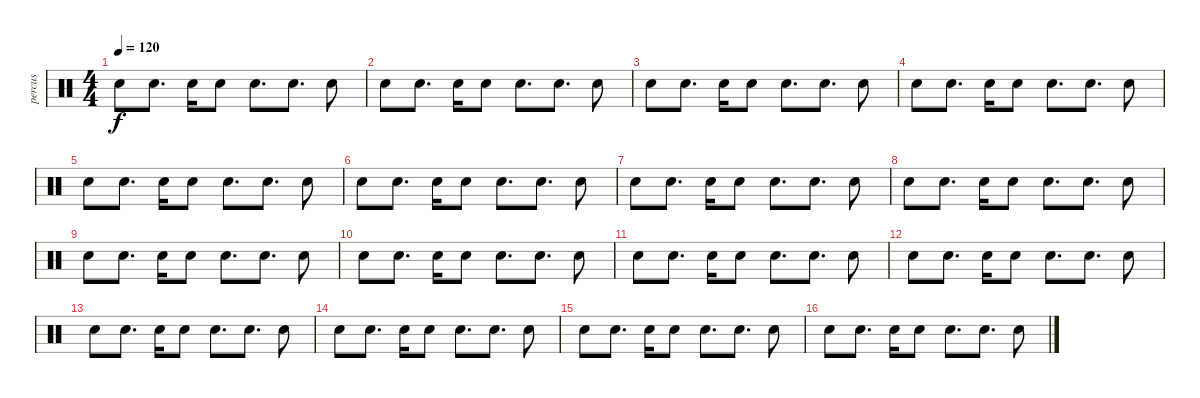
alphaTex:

\track ("percus" "percus") {instrument percussion}
\staff {score}
\articulation defaults
\ts (4 4)
\tempo 120
\clef neutral
\ks c "Snare (hit)".8{dy f} "Snare (hit)".8{d} "Snare (hit)".16 "Snare (hit)".8 "Snare (hit)".8{d} "Snare (hit)".8{d} "Snare (hit)".8
|
"Snare (hit)".8 "Snare (hit)".8{d} "Snare (hit)".16 "Snare (hit)".8 "Snare (hit)".8{d} "Snare (hit)".8{d} "Snare (hit)".8 |
"Snare (hit)".8 "Snare (hit)".8{d} "Snare (hit)".16 "Snare (hit)".8 "Snare (hit)".8{d} "Snare (hit)".8{d} "Snare (hit)".8 |
"Snare (hit)".8 "Snare (hit)".8{d} "Snare (hit)".16 "Snare (hit)".8 "Snare (hit)".8{d} "Snare (hit)".8{d} "Snare (hit)".8 |
"Snare (hit)".8 "Snare (hit)".8{d} "Snare (hit)".16 "Snare (hit)".8 "Snare (hit)".8{d} "Snare (hit)".8{d} "Snare (hit)".8 |
"Snare (hit)".8 "Snare (hit)".8{d} "Snare (hit)".16 "Snare (hit)".8 "Snare (hit)".8{d} "Snare (hit)".8{d} "Snare (hit)".8 |
"Snare (hit)".8 "Snare (hit)".8{d} "Snare (hit)".16 "Snare (hit)".8 "Snare (hit)".8{d} "Snare (hit)".8{d} "Snare (hit)".8 |
"Snare (hit)".8 "Snare (hit)".8{d} "Snare (hit)".16 "Snare (hit)".8 "Snare (hit)".8{d} "Snare (hit)".8{d} "Snare (hit)".8 |
"Snare (hit)".8 "Snare (hit)".8{d} "Snare (hit)".16 "Snare (hit)".8 "Snare (hit)".8{d} "Snare (hit)".8{d} "Snare (hit)".8 |
"Snare (hit)".8 "Snare (hit)".8{d} "Snare (hit)".16 "Snare (hit)".8 "Snare (hit)".8{d} "Snare (hit)".8{d} "Snare (hit)".8 |
"Snare (hit)".8 "Snare (hit)".8{d} "Snare (hit)".16 "Snare (hit)".8 "Snare (hit)".8{d} "Snare (hit)".8{d} "Snare (hit)".8 |
"Snare (hit)".8 "Snare (hit)".8{d} "Snare (hit)".16 "Snare (hit)".8 "Snare (hit)".8{d} "Snare (hit)".8{d} "Snare (hit)".8 |
"Snare (hit)".8 "Snare (hit)".8{d} "Snare (hit)".16 "Snare (hit)".8 "Snare (hit)".8{d} "Snare (hit)".8{d} "Snare (hit)".8 |
"Snare (hit)".8 "Snare (hit)".8{d} "Snare (hit)".16 "Snare (hit)".8 "Snare (hit)".8{d} "Snare (hit)".8{d} "Snare (hit)".8 |
"Snare (hit)".8 "Snare (hit)".8{d} "Snare (hit)".16 "Snare (hit)".8 "Snare (hit)".8{d} "Snare (hit)".8{d} "Snare (hit)".8 |
"Snare (hit)".8 "Snare (hit)".8{d} "Snare (hit)".16 "Snare (hit)".8 "Snare (hit)".8{d} "Snare (hit)".8{d} "Snare (hit)".8
